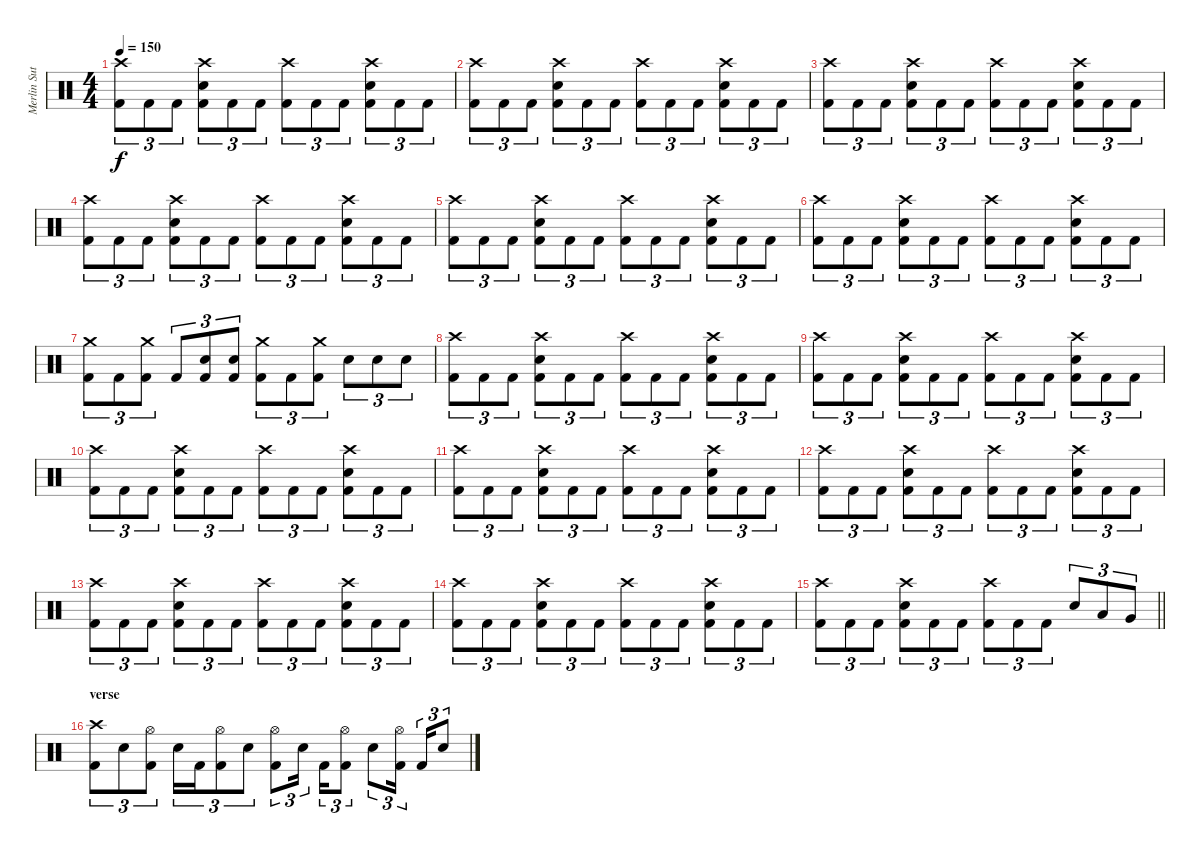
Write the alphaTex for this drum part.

\track ("Merlin Sutter" "Merlin Sut") {instrument percussion}
\staff {score}
\articulation defaults
\ts (4 4)
\tempo 150
\clef neutral
\ks c
("Crash high (hit)" "Kick (hit) 2").8{tu (3 2) dy f} "Kick (hit) 2".8{tu (3 2)} "Kick (hit) 2".8{tu (3 2)} ("Crash high (hit)" "Snare (hit) 2" "Kick (hit) 2").8{tu (3 2)} "Kick (hit) 2".8{tu (3 2)} "Kick (hit) 2".8{tu (3 2)} ("Crash high (hit)" "Kick (hit) 2").8{tu (3 2)} "Kick (hit) 2".8{tu (3 2)} "Kick (hit) 2".8{tu (3 2)} ("Crash high (hit)" "Snare (hit) 2" "Kick (hit) 2").8{tu (3 2)} "Kick (hit) 2".8{tu (3 2)} "Kick (hit) 2".8{tu (3 2)} |
("Crash high (hit)" "Kick (hit) 2").8{tu (3 2)} "Kick (hit) 2".8{tu (3 2)} "Kick (hit) 2".8{tu (3 2)} ("Crash high (hit)" "Snare (hit) 2" "Kick (hit) 2").8{tu (3 2)} "Kick (hit) 2".8{tu (3 2)} "Kick (hit) 2".8{tu (3 2)} ("Crash high (hit)" "Kick (hit) 2").8{tu (3 2)} "Kick (hit) 2".8{tu (3 2)} "Kick (hit) 2".8{tu (3 2)} ("Crash high (hit)" "Snare (hit) 2" "Kick (hit) 2").8{tu (3 2)} "Kick (hit) 2".8{tu (3 2)} "Kick (hit) 2".8{tu (3 2)} |
("Crash high (hit)" "Kick (hit) 2").8{tu (3 2)} "Kick (hit) 2".8{tu (3 2)} "Kick (hit) 2".8{tu (3 2)} ("Crash high (hit)" "Snare (hit) 2" "Kick (hit) 2").8{tu (3 2)} "Kick (hit) 2".8{tu (3 2)} "Kick (hit) 2".8{tu (3 2)} ("Crash high (hit)" "Kick (hit) 2").8{tu (3 2)} "Kick (hit) 2".8{tu (3 2)} "Kick (hit) 2".8{tu (3 2)} ("Crash high (hit)" "Snare (hit) 2" "Kick (hit) 2").8{tu (3 2)} "Kick (hit) 2".8{tu (3 2)} "Kick (hit) 2".8{tu (3 2)} |
("Crash high (hit)" "Kick (hit) 2").8{tu (3 2)} "Kick (hit) 2".8{tu (3 2)} "Kick (hit) 2".8{tu (3 2)} ("Crash high (hit)" "Snare (hit) 2" "Kick (hit) 2").8{tu (3 2)} "Kick (hit) 2".8{tu (3 2)} "Kick (hit) 2".8{tu (3 2)} ("Crash high (hit)" "Kick (hit) 2").8{tu (3 2)} "Kick (hit) 2".8{tu (3 2)} "Kick (hit) 2".8{tu (3 2)} ("Crash high (hit)" "Snare (hit) 2" "Kick (hit) 2").8{tu (3 2)} "Kick (hit) 2".8{tu (3 2)} "Kick (hit) 2".8{tu (3 2)} |
("Crash high (hit)" "Kick (hit) 2").8{tu (3 2)} "Kick (hit) 2".8{tu (3 2)} "Kick (hit) 2".8{tu (3 2)} ("Crash high (hit)" "Snare (hit) 2" "Kick (hit) 2").8{tu (3 2)} "Kick (hit) 2".8{tu (3 2)} "Kick (hit) 2".8{tu (3 2)} ("Crash high (hit)" "Kick (hit) 2").8{tu (3 2)} "Kick (hit) 2".8{tu (3 2)} "Kick (hit) 2".8{tu (3 2)} ("Crash high (hit)" "Snare (hit) 2" "Kick (hit) 2").8{tu (3 2)} "Kick (hit) 2".8{tu (3 2)} "Kick (hit) 2".8{tu (3 2)} |
("Crash high (hit)" "Kick (hit) 2").8{tu (3 2)} "Kick (hit) 2".8{tu (3 2)} "Kick (hit) 2".8{tu (3 2)} ("Crash high (hit)" "Snare (hit) 2" "Kick (hit) 2").8{tu (3 2)} "Kick (hit) 2".8{tu (3 2)} "Kick (hit) 2".8{tu (3 2)} ("Crash high (hit)" "Kick (hit) 2").8{tu (3 2)} "Kick (hit) 2".8{tu (3 2)} "Kick (hit) 2".8{tu (3 2)} ("Crash high (hit)" "Snare (hit) 2" "Kick (hit) 2").8{tu (3 2)} "Kick (hit) 2".8{tu (3 2)} "Kick (hit) 2".8{tu (3 2)} |
("Crash medium (hit)" "Kick (hit) 2").8{tu (3 2)} "Kick (hit) 2".8{tu (3 2)} ("Crash medium (hit)" "Kick (hit) 2").8{tu (3 2)} "Kick (hit) 2".8{tu (3 2)} ("Snare (hit) 2" "Kick (hit) 2").8{tu (3 2)} ("Snare (hit) 2" "Kick (hit) 2").8{tu (3 2)} ("Crash medium (hit)" "Kick (hit) 2").8{tu (3 2)} "Kick (hit) 2".8{tu (3 2)} ("Crash medium (hit)" "Kick (hit) 2").8{tu (3 2)} "Snare (hit) 2".8{tu (3 2)} "Snare (hit) 2".8{tu (3 2)} "Snare (hit) 2".8{tu (3 2)} |
("Crash high (hit)" "Kick (hit) 2").8{tu (3 2)} "Kick (hit) 2".8{tu (3 2)} "Kick (hit) 2".8{tu (3 2)} ("Crash high (hit)" "Snare (hit) 2" "Kick (hit) 2").8{tu (3 2)} "Kick (hit) 2".8{tu (3 2)} "Kick (hit) 2".8{tu (3 2)} ("Crash high (hit)" "Kick (hit) 2").8{tu (3 2)} "Kick (hit) 2".8{tu (3 2)} "Kick (hit) 2".8{tu (3 2)} ("Crash high (hit)" "Snare (hit) 2" "Kick (hit) 2").8{tu (3 2)} "Kick (hit) 2".8{tu (3 2)} "Kick (hit) 2".8{tu (3 2)} |
("Crash high (hit)" "Kick (hit) 2").8{tu (3 2)} "Kick (hit) 2".8{tu (3 2)} "Kick (hit) 2".8{tu (3 2)} ("Crash high (hit)" "Snare (hit) 2" "Kick (hit) 2").8{tu (3 2)} "Kick (hit) 2".8{tu (3 2)} "Kick (hit) 2".8{tu (3 2)} ("Crash high (hit)" "Kick (hit) 2").8{tu (3 2)} "Kick (hit) 2".8{tu (3 2)} "Kick (hit) 2".8{tu (3 2)} ("Crash high (hit)" "Snare (hit) 2" "Kick (hit) 2").8{tu (3 2)} "Kick (hit) 2".8{tu (3 2)} "Kick (hit) 2".8{tu (3 2)} |
("Crash high (hit)" "Kick (hit) 2").8{tu (3 2)} "Kick (hit) 2".8{tu (3 2)} "Kick (hit) 2".8{tu (3 2)} ("Crash high (hit)" "Snare (hit) 2" "Kick (hit) 2").8{tu (3 2)} "Kick (hit) 2".8{tu (3 2)} "Kick (hit) 2".8{tu (3 2)} ("Crash high (hit)" "Kick (hit) 2").8{tu (3 2)} "Kick (hit) 2".8{tu (3 2)} "Kick (hit) 2".8{tu (3 2)} ("Crash high (hit)" "Snare (hit) 2" "Kick (hit) 2").8{tu (3 2)} "Kick (hit) 2".8{tu (3 2)} "Kick (hit) 2".8{tu (3 2)} |
("Crash high (hit)" "Kick (hit) 2").8{tu (3 2)} "Kick (hit) 2".8{tu (3 2)} "Kick (hit) 2".8{tu (3 2)} ("Crash high (hit)" "Snare (hit) 2" "Kick (hit) 2").8{tu (3 2)} "Kick (hit) 2".8{tu (3 2)} "Kick (hit) 2".8{tu (3 2)} ("Crash high (hit)" "Kick (hit) 2").8{tu (3 2)} "Kick (hit) 2".8{tu (3 2)} "Kick (hit) 2".8{tu (3 2)} ("Crash high (hit)" "Snare (hit) 2" "Kick (hit) 2").8{tu (3 2)} "Kick (hit) 2".8{tu (3 2)} "Kick (hit) 2".8{tu (3 2)} |
("Crash high (hit)" "Kick (hit) 2").8{tu (3 2)} "Kick (hit) 2".8{tu (3 2)} "Kick (hit) 2".8{tu (3 2)} ("Crash high (hit)" "Snare (hit) 2" "Kick (hit) 2").8{tu (3 2)} "Kick (hit) 2".8{tu (3 2)} "Kick (hit) 2".8{tu (3 2)} ("Crash high (hit)" "Kick (hit) 2").8{tu (3 2)} "Kick (hit) 2".8{tu (3 2)} "Kick (hit) 2".8{tu (3 2)} ("Crash high (hit)" "Snare (hit) 2" "Kick (hit) 2").8{tu (3 2)} "Kick (hit) 2".8{tu (3 2)} "Kick (hit) 2".8{tu (3 2)} |
("Crash high (hit)" "Kick (hit) 2").8{tu (3 2)} "Kick (hit) 2".8{tu (3 2)} "Kick (hit) 2".8{tu (3 2)} ("Crash high (hit)" "Snare (hit) 2" "Kick (hit) 2").8{tu (3 2)} "Kick (hit) 2".8{tu (3 2)} "Kick (hit) 2".8{tu (3 2)} ("Crash high (hit)" "Kick (hit) 2").8{tu (3 2)} "Kick (hit) 2".8{tu (3 2)} "Kick (hit) 2".8{tu (3 2)} ("Crash high (hit)" "Snare (hit) 2" "Kick (hit) 2").8{tu (3 2)} "Kick (hit) 2".8{tu (3 2)} "Kick (hit) 2".8{tu (3 2)} |
("Crash high (hit)" "Kick (hit) 2").8{tu (3 2)} "Kick (hit) 2".8{tu (3 2)} "Kick (hit) 2".8{tu (3 2)} ("Crash high (hit)" "Snare (hit) 2" "Kick (hit) 2").8{tu (3 2)} "Kick (hit) 2".8{tu (3 2)} "Kick (hit) 2".8{tu (3 2)} ("Crash high (hit)" "Kick (hit) 2").8{tu (3 2)} "Kick (hit) 2".8{tu (3 2)} "Kick (hit) 2".8{tu (3 2)} ("Crash high (hit)" "Snare (hit) 2" "Kick (hit) 2").8{tu (3 2)} "Kick (hit) 2".8{tu (3 2)} "Kick (hit) 2".8{tu (3 2)} |
\barLineRight lightlight
("Crash high (hit)" "Kick (hit) 2").8{tu (3 2)} "Kick (hit) 2".8{tu (3 2)} "Kick (hit) 2".8{tu (3 2)} ("Crash high (hit)" "Snare (hit) 2" "Kick (hit) 2").8{tu (3 2)} "Kick (hit) 2".8{tu (3 2)} "Kick (hit) 2".8{tu (3 2)} ("Crash high (hit)" "Kick (hit) 2").8{tu (3 2)} "Kick (hit) 2".8{tu (3 2)} "Kick (hit) 2".8{tu (3 2)} "Snare (hit) 2".8{tu (3 2)} "Low Tom (hit)".8{tu (3 2)} "Very Low Tom (hit)".8{tu (3 2)} |
\section ("" "verse")
("Crash high (hit)" "Kick (hit) 2").8{tu (3 2)} "Snare (hit) 2".8{tu (3 2)} ("Hi-Hat (open)" "Kick (hit) 2").8{tu (3 2)} "Snare (hit) 2".16{tu (3 2)} "Kick (hit) 2".16{tu (3 2)} ("Hi-Hat (open)" "Kick (hit) 2").8{tu (3 2)} "Snare (hit) 2".8{tu (3 2)} ("Hi-Hat (open)" "Kick (hit) 2").8{tu (3 2)} "Snare (hit) 2".16{tu (3 2) beam splitsecondary} "Kick (hit) 2".16{tu (3 2)} ("Hi-Hat (open)" "Kick (hit) 2").8{tu (3 2)} "Snare (hit) 2".8{tu (3 2)} ("Hi-Hat (open)" "Kick (hit) 2").16{tu (3 2) beam splitsecondary} "Kick (hit) 2".16{tu (3 2)} "Snare (hit) 2".8{tu (3 2)}
